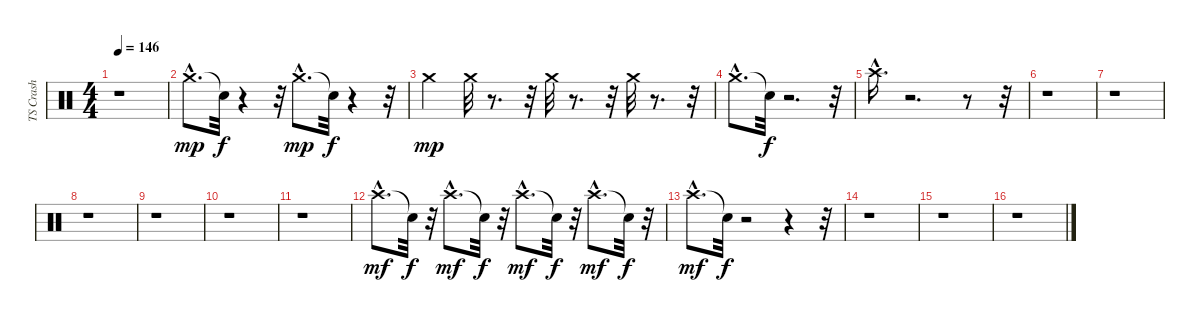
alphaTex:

\track ("TS Crash" "TS Crash") {instrument percussion}
\staff {score}
\articulation defaults
\ts (4 4)
\tempo 146
\clef neutral
\ks c
r.1{dy f} |
"Crash medium (hit)"{hac}.8{d dy mp} "Snare (hit)"{t}.32{dy f} r.4 r.32 "Crash medium (hit)"{hac}.8{d dy mp} "Snare (hit)"{t}.32{dy f} r.4 r.32 |
"Crash medium (hit)".4{dy mp} "Crash medium (hit)".32 r.8{d} r.32 "Crash medium (hit)".32 r.8{d} r.32 "Crash medium (hit)".32 r.8{d} r.32 |
"Crash medium (hit)"{hac}.8{d} "Snare (hit)"{t}.32{dy f} r.2{d} r.32 |
"Crash high (hit)"{hac}.16{d} r.2{d} r.8 r.32 |
r.1 |
r.1 |
r.1 |
r.1 |
r.1 |
r.1 |
"Crash high (hit)"{hac}.8{d dy mf} "Snare (hit)"{t}.32{dy f} r.32 "Crash high (hit)"{hac}.8{d dy mf} "Snare (hit)"{t}.32{dy f} r.32 "Crash high (hit)"{hac}.8{d dy mf} "Snare (hit)"{t}.32{dy f} r.32 "Crash high (hit)"{hac}.8{d dy mf} "Snare (hit)"{t}.32{dy f} r.32 |
"Crash high (hit)"{hac}.8{d dy mf} "Snare (hit)"{t}.32{dy f} r.2 r.4 r.32 |
r.1 |
r.1 |
r.1
